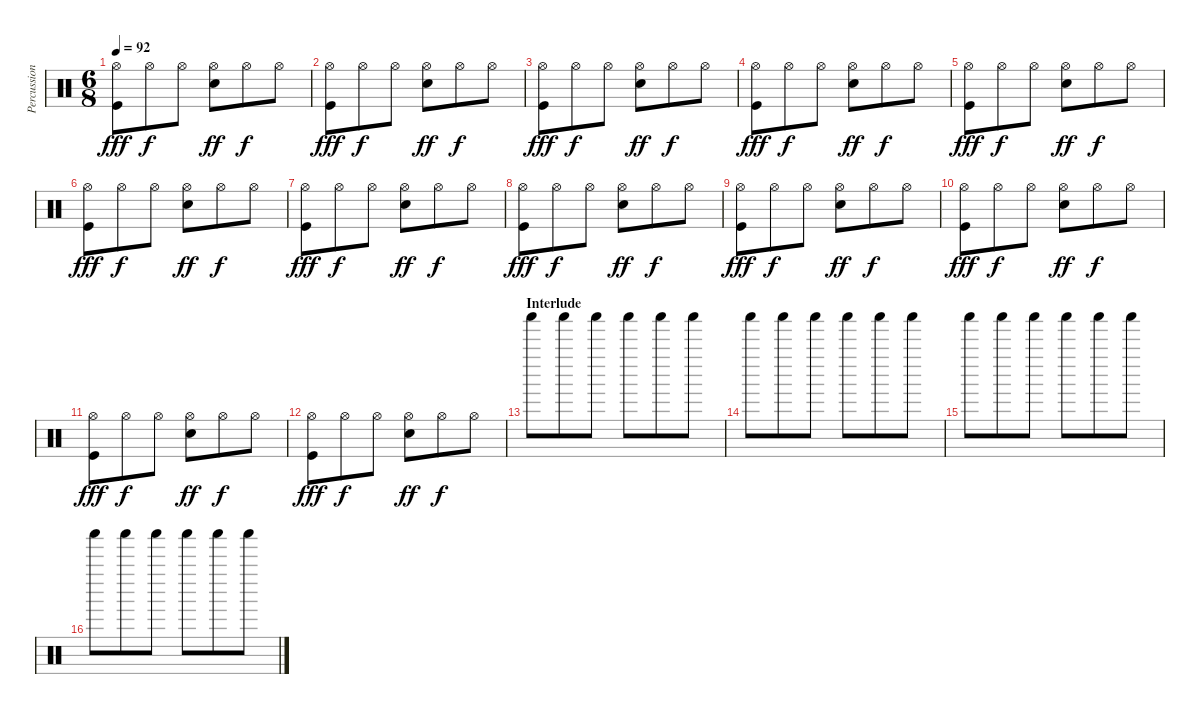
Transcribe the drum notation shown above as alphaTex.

\track ("Percussion" "Percussion") {instrument percussion}
\staff {score}
\articulation defaults
\ts (6 8)
\tempo 92
\clef neutral
\ks c
("Hi-Hat (open)" "Kick (hit)").8{dy fff} "Hi-Hat (open)".8{dy f} "Hi-Hat (open)".8 ("Hi-Hat (open)" "Snare (hit) 2").8{dy ff} "Hi-Hat (open)".8{dy f} "Hi-Hat (open)".8 |
("Hi-Hat (open)" "Kick (hit)").8{dy fff} "Hi-Hat (open)".8{dy f} "Hi-Hat (open)".8 ("Hi-Hat (open)" "Snare (hit) 2").8{dy ff} "Hi-Hat (open)".8{dy f} "Hi-Hat (open)".8 |
("Hi-Hat (open)" "Kick (hit)").8{dy fff} "Hi-Hat (open)".8{dy f} "Hi-Hat (open)".8 ("Hi-Hat (open)" "Snare (hit) 2").8{dy ff} "Hi-Hat (open)".8{dy f} "Hi-Hat (open)".8 |
("Hi-Hat (open)" "Kick (hit)").8{dy fff} "Hi-Hat (open)".8{dy f} "Hi-Hat (open)".8 ("Hi-Hat (open)" "Snare (hit) 2").8{dy ff} "Hi-Hat (open)".8{dy f} "Hi-Hat (open)".8 |
("Hi-Hat (open)" "Kick (hit)").8{dy fff} "Hi-Hat (open)".8{dy f} "Hi-Hat (open)".8 ("Hi-Hat (open)" "Snare (hit) 2").8{dy ff} "Hi-Hat (open)".8{dy f} "Hi-Hat (open)".8 |
("Hi-Hat (open)" "Kick (hit)").8{dy fff} "Hi-Hat (open)".8{dy f} "Hi-Hat (open)".8 ("Hi-Hat (open)" "Snare (hit) 2").8{dy ff} "Hi-Hat (open)".8{dy f} "Hi-Hat (open)".8 |
("Hi-Hat (open)" "Kick (hit)").8{dy fff} "Hi-Hat (open)".8{dy f} "Hi-Hat (open)".8 ("Hi-Hat (open)" "Snare (hit) 2").8{dy ff} "Hi-Hat (open)".8{dy f} "Hi-Hat (open)".8 |
("Hi-Hat (open)" "Kick (hit)").8{dy fff} "Hi-Hat (open)".8{dy f} "Hi-Hat (open)".8 ("Hi-Hat (open)" "Snare (hit) 2").8{dy ff} "Hi-Hat (open)".8{dy f} "Hi-Hat (open)".8 |
("Hi-Hat (open)" "Kick (hit)").8{dy fff} "Hi-Hat (open)".8{dy f} "Hi-Hat (open)".8 ("Hi-Hat (open)" "Snare (hit) 2").8{dy ff} "Hi-Hat (open)".8{dy f} "Hi-Hat (open)".8 |
("Hi-Hat (open)" "Kick (hit)").8{dy fff} "Hi-Hat (open)".8{dy f} "Hi-Hat (open)".8 ("Hi-Hat (open)" "Snare (hit) 2").8{dy ff} "Hi-Hat (open)".8{dy f} "Hi-Hat (open)".8 |
("Hi-Hat (open)" "Kick (hit)").8{dy fff} "Hi-Hat (open)".8{dy f} "Hi-Hat (open)".8 ("Hi-Hat (open)" "Snare (hit) 2").8{dy ff} "Hi-Hat (open)".8{dy f} "Hi-Hat (open)".8 |
("Hi-Hat (open)" "Kick (hit)").8{dy fff} "Hi-Hat (open)".8{dy f} "Hi-Hat (open)".8 ("Hi-Hat (open)" "Snare (hit) 2").8{dy ff} "Hi-Hat (open)".8{dy f} "Hi-Hat (open)".8 |
\section ("" "Interlude")
"Shaker (hit)".8 "Shaker (hit)".8 "Shaker (hit)".8 "Shaker (hit)".8 "Shaker (hit)".8 "Shaker (hit)".8 |
"Shaker (hit)".8 "Shaker (hit)".8 "Shaker (hit)".8 "Shaker (hit)".8 "Shaker (hit)".8 "Shaker (hit)".8 |
"Shaker (hit)".8 "Shaker (hit)".8 "Shaker (hit)".8 "Shaker (hit)".8 "Shaker (hit)".8 "Shaker (hit)".8 |
"Shaker (hit)".8 "Shaker (hit)".8 "Shaker (hit)".8 "Shaker (hit)".8 "Shaker (hit)".8 "Shaker (hit)".8
